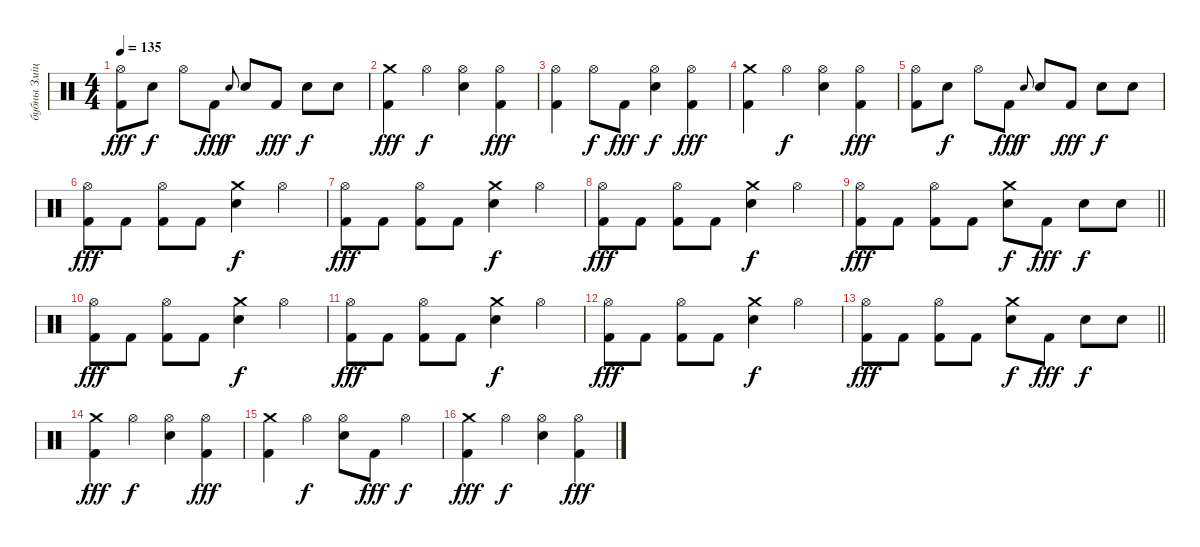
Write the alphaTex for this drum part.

\track ("бубны Змiцер" "бубны Змiц") {solo instrument percussion}
\staff {score}
\articulation defaults
\ts (4 4)
\tempo 135
\clef neutral
\ks c
("Hi-Hat (open)" "Kick (hit) 2").8{dy fff} "Electric Snare (hit)".8{dy f} "Hi-Hat (open)".8 "Kick (hit) 2".8{dy fff} "Electric Snare (hit)".8{gr onbeat dy f} "Electric Snare (hit)".8 "Kick (hit) 2".8{dy fff} "Electric Snare (hit)".8{dy f} "Electric Snare (hit)".8 |
("Crash medium (hit)" "Kick (hit) 2").4{dy fff} "Hi-Hat (open)".4{dy f} ("Hi-Hat (open)" "Electric Snare (hit)").4 ("Hi-Hat (open)" "Kick (hit) 2").4{dy fff} |
("Hi-Hat (open)" "Kick (hit) 2").4 "Hi-Hat (open)".8{dy f} "Kick (hit) 2".8{dy fff} ("Hi-Hat (open)" "Electric Snare (hit)").4{dy f} ("Hi-Hat (open)" "Kick (hit) 2").4{dy fff} |
("Crash medium (hit)" "Kick (hit) 2").4 "Hi-Hat (open)".4{dy f} ("Hi-Hat (open)" "Electric Snare (hit)").4 ("Hi-Hat (open)" "Kick (hit) 2").4{dy fff} |
("Hi-Hat (open)" "Kick (hit) 2").8 "Electric Snare (hit)".8{dy f} "Hi-Hat (open)".8 "Kick (hit) 2".8{dy fff} "Electric Snare (hit)".8{gr onbeat dy f} "Electric Snare (hit)".8 "Kick (hit) 2".8{dy fff} "Electric Snare (hit)".8{dy f} "Electric Snare (hit)".8 |
("Hi-Hat (open)" "Kick (hit) 2").8{dy fff} "Kick (hit) 2".8 ("Hi-Hat (open)" "Kick (hit) 2").8 "Kick (hit) 2".8 ("Crash medium (hit)" "Electric Snare (hit)").4{dy f} "Hi-Hat (open)".4 |
("Hi-Hat (open)" "Kick (hit) 2").8{dy fff} "Kick (hit) 2".8 ("Hi-Hat (open)" "Kick (hit) 2").8 "Kick (hit) 2".8 ("Crash medium (hit)" "Electric Snare (hit)").4{dy f} "Hi-Hat (open)".4 |
("Hi-Hat (open)" "Kick (hit) 2").8{dy fff} "Kick (hit) 2".8 ("Hi-Hat (open)" "Kick (hit) 2").8 "Kick (hit) 2".8 ("Crash medium (hit)" "Electric Snare (hit)").4{dy f} "Hi-Hat (open)".4 |
\barLineRight lightlight
("Hi-Hat (open)" "Kick (hit) 2").8{dy fff} "Kick (hit) 2".8 ("Hi-Hat (open)" "Kick (hit) 2").8 "Kick (hit) 2".8 ("Crash medium (hit)" "Electric Snare (hit)").8{dy f} "Kick (hit) 2".8{dy fff} "Electric Snare (hit)".8{dy f} "Electric Snare (hit)".8 |
("Hi-Hat (open)" "Kick (hit) 2").8{dy fff} "Kick (hit) 2".8 ("Hi-Hat (open)" "Kick (hit) 2").8 "Kick (hit) 2".8 ("Crash medium (hit)" "Electric Snare (hit)").4{dy f} "Hi-Hat (open)".4 |
("Hi-Hat (open)" "Kick (hit) 2").8{dy fff} "Kick (hit) 2".8 ("Hi-Hat (open)" "Kick (hit) 2").8 "Kick (hit) 2".8 ("Crash medium (hit)" "Electric Snare (hit)").4{dy f} "Hi-Hat (open)".4 |
("Hi-Hat (open)" "Kick (hit) 2").8{dy fff} "Kick (hit) 2".8 ("Hi-Hat (open)" "Kick (hit) 2").8 "Kick (hit) 2".8 ("Crash medium (hit)" "Electric Snare (hit)").4{dy f} "Hi-Hat (open)".4 |
\barLineRight lightlight
("Hi-Hat (open)" "Kick (hit) 2").8{dy fff} "Kick (hit) 2".8 ("Hi-Hat (open)" "Kick (hit) 2").8 "Kick (hit) 2".8 ("Crash medium (hit)" "Electric Snare (hit)").8{dy f} "Kick (hit) 2".8{dy fff} "Electric Snare (hit)".8{dy f} "Electric Snare (hit)".8 |
("Crash medium (hit)" "Kick (hit) 2").4{dy fff} "Hi-Hat (open)".4{dy f} ("Hi-Hat (open)" "Electric Snare (hit)").4 ("Hi-Hat (open)" "Kick (hit) 2").4{dy fff} |
("Crash medium (hit)" "Kick (hit) 2").4 "Hi-Hat (open)".4{dy f} ("Hi-Hat (open)" "Electric Snare (hit)").8 "Kick (hit) 2".8{dy fff} "Hi-Hat (open)".4{dy f} |
("Crash medium (hit)" "Kick (hit) 2").4{dy fff} "Hi-Hat (open)".4{dy f} ("Hi-Hat (open)" "Electric Snare (hit)").4 ("Hi-Hat (open)" "Kick (hit) 2").4{dy fff}
